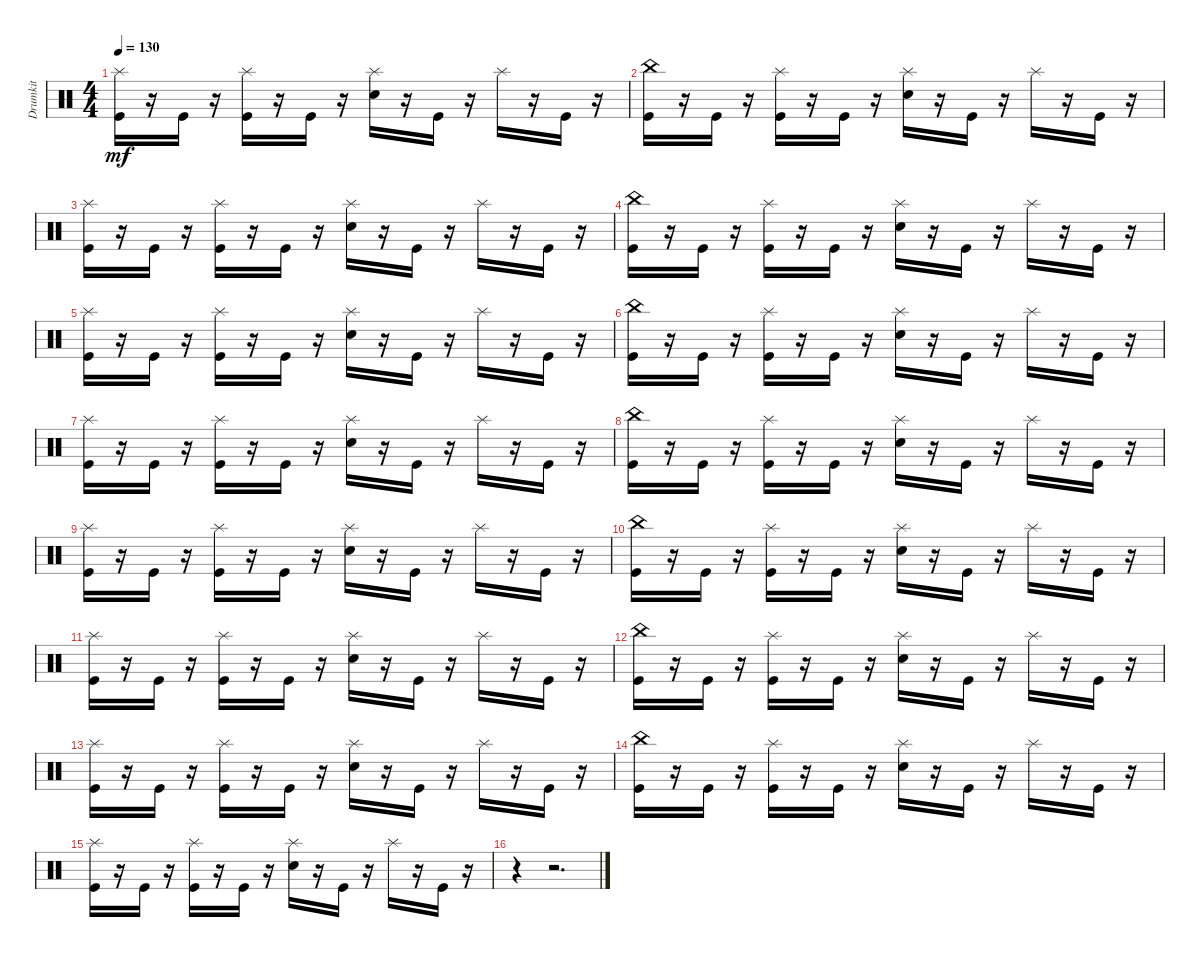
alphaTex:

\track ("Drumkit" "Drumkit") {instrument percussion}
\staff {score}
\articulation defaults
\ts (4 4)
\tempo 130
\clef neutral
\ks c
("Kick (hit)" "Splash (hit)").16{dy mf} r.16 "Kick (hit)".16 r.16 ("Kick (hit)" "Splash (hit)").16 r.16 "Kick (hit)".16 r.16 ("Snare (hit) 2" "Splash (hit)").16 r.16 "Kick (hit)".16 r.16 "Splash (hit)".16 r.16 "Kick (hit)".16 r.16 |
("Kick (hit)" "China (hit)").16 r.16 "Kick (hit)".16 r.16 ("Kick (hit)" "Splash (hit)").16 r.16 "Kick (hit)".16 r.16 ("Snare (hit) 2" "Splash (hit)").16 r.16 "Kick (hit)".16 r.16 "Splash (hit)".16 r.16 "Kick (hit)".16 r.16 |
("Kick (hit)" "Splash (hit)").16 r.16 "Kick (hit)".16 r.16 ("Kick (hit)" "Splash (hit)").16 r.16 "Kick (hit)".16 r.16 ("Snare (hit) 2" "Splash (hit)").16 r.16 "Kick (hit)".16 r.16 "Splash (hit)".16 r.16 "Kick (hit)".16 r.16 |
("Kick (hit)" "China (hit)").16 r.16 "Kick (hit)".16 r.16 ("Kick (hit)" "Splash (hit)").16 r.16 "Kick (hit)".16 r.16 ("Snare (hit) 2" "Splash (hit)").16 r.16 "Kick (hit)".16 r.16 "Splash (hit)".16 r.16 "Kick (hit)".16 r.16 |
("Kick (hit)" "Splash (hit)").16 r.16 "Kick (hit)".16 r.16 ("Kick (hit)" "Splash (hit)").16 r.16 "Kick (hit)".16 r.16 ("Snare (hit) 2" "Splash (hit)").16 r.16 "Kick (hit)".16 r.16 "Splash (hit)".16 r.16 "Kick (hit)".16 r.16 |
("Kick (hit)" "China (hit)").16 r.16 "Kick (hit)".16 r.16 ("Kick (hit)" "Splash (hit)").16 r.16 "Kick (hit)".16 r.16 ("Snare (hit) 2" "Splash (hit)").16 r.16 "Kick (hit)".16 r.16 "Splash (hit)".16 r.16 "Kick (hit)".16 r.16 |
("Kick (hit)" "Splash (hit)").16 r.16 "Kick (hit)".16 r.16 ("Kick (hit)" "Splash (hit)").16 r.16 "Kick (hit)".16 r.16 ("Snare (hit) 2" "Splash (hit)").16 r.16 "Kick (hit)".16 r.16 "Splash (hit)".16 r.16 "Kick (hit)".16 r.16 |
("Kick (hit)" "China (hit)").16 r.16 "Kick (hit)".16 r.16 ("Kick (hit)" "Splash (hit)").16 r.16 "Kick (hit)".16 r.16 ("Snare (hit) 2" "Splash (hit)").16 r.16 "Kick (hit)".16 r.16 "Splash (hit)".16 r.16 "Kick (hit)".16 r.16 |
("Kick (hit)" "Splash (hit)").16 r.16 "Kick (hit)".16 r.16 ("Kick (hit)" "Splash (hit)").16 r.16 "Kick (hit)".16 r.16 ("Snare (hit) 2" "Splash (hit)").16 r.16 "Kick (hit)".16 r.16 "Splash (hit)".16 r.16 "Kick (hit)".16 r.16 |
("Kick (hit)" "China (hit)").16 r.16 "Kick (hit)".16 r.16 ("Kick (hit)" "Splash (hit)").16 r.16 "Kick (hit)".16 r.16 ("Snare (hit) 2" "Splash (hit)").16 r.16 "Kick (hit)".16 r.16 "Splash (hit)".16 r.16 "Kick (hit)".16 r.16 |
("Kick (hit)" "Splash (hit)").16 r.16 "Kick (hit)".16 r.16 ("Kick (hit)" "Splash (hit)").16 r.16 "Kick (hit)".16 r.16 ("Snare (hit) 2" "Splash (hit)").16 r.16 "Kick (hit)".16 r.16 "Splash (hit)".16 r.16 "Kick (hit)".16 r.16 |
("Kick (hit)" "China (hit)").16 r.16 "Kick (hit)".16 r.16 ("Kick (hit)" "Splash (hit)").16 r.16 "Kick (hit)".16 r.16 ("Snare (hit) 2" "Splash (hit)").16 r.16 "Kick (hit)".16 r.16 "Splash (hit)".16 r.16 "Kick (hit)".16 r.16 |
("Kick (hit)" "Splash (hit)").16 r.16 "Kick (hit)".16 r.16 ("Kick (hit)" "Splash (hit)").16 r.16 "Kick (hit)".16 r.16 ("Snare (hit) 2" "Splash (hit)").16 r.16 "Kick (hit)".16 r.16 "Splash (hit)".16 r.16 "Kick (hit)".16 r.16 |
("Kick (hit)" "China (hit)").16 r.16 "Kick (hit)".16 r.16 ("Kick (hit)" "Splash (hit)").16 r.16 "Kick (hit)".16 r.16 ("Snare (hit) 2" "Splash (hit)").16 r.16 "Kick (hit)".16 r.16 "Splash (hit)".16 r.16 "Kick (hit)".16 r.16 |
("Kick (hit)" "Splash (hit)").16 r.16 "Kick (hit)".16 r.16 ("Kick (hit)" "Splash (hit)").16 r.16 "Kick (hit)".16 r.16 ("Snare (hit) 2" "Splash (hit)").16 r.16 "Kick (hit)".16 r.16 "Splash (hit)".16 r.16 "Kick (hit)".16 r.16 |
r.4 r.2{d}
